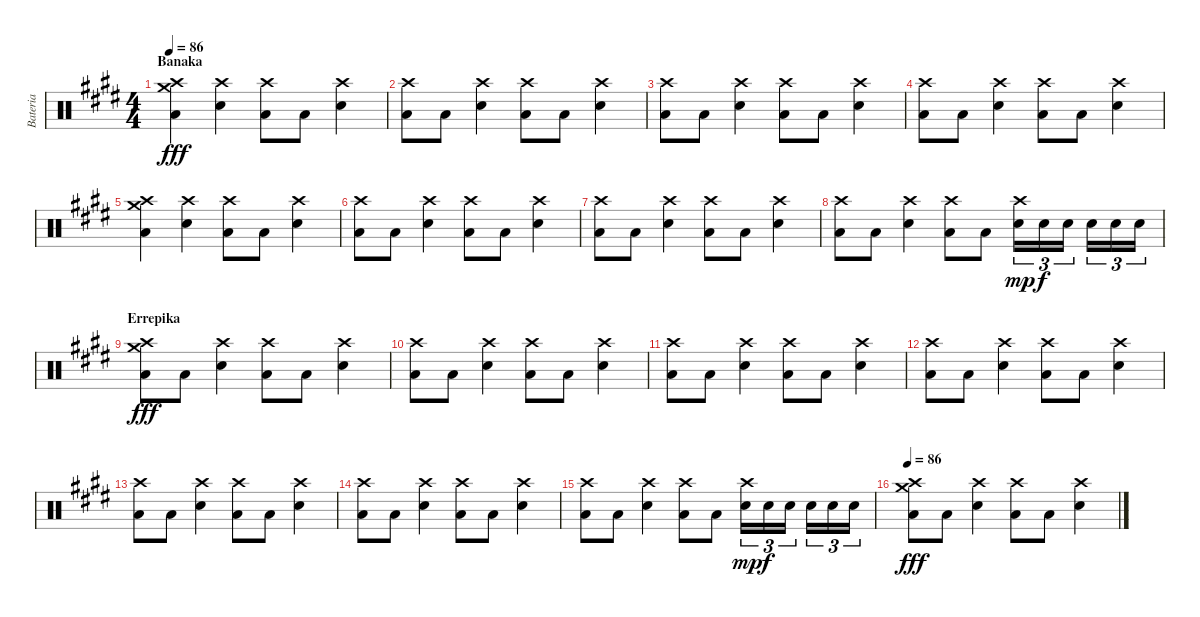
\track ("Bateria" "Bateria") {instrument percussion}
\staff {score}
\articulation defaults
\ts (4 4)
\section ("" "Banaka")
\tempo 86
\clef neutral
\ks e
("Crash high (hit)" "Low Floor Tom (hit)" "Crash medium (hit)").4{dy fff} ("Crash high (hit)" "Electric Snare (hit)").4 ("Crash high (hit)" "Low Floor Tom (hit)").8 "Low Floor Tom (hit)".8 ("Crash high (hit)" "Electric Snare (hit)").4 |
("Crash high (hit)" "Low Floor Tom (hit)").8 "Low Floor Tom (hit)".8 ("Crash high (hit)" "Electric Snare (hit)").4 ("Crash high (hit)" "Low Floor Tom (hit)").8 "Low Floor Tom (hit)".8 ("Crash high (hit)" "Electric Snare (hit)").4 |
("Crash high (hit)" "Low Floor Tom (hit)").8 "Low Floor Tom (hit)".8 ("Crash high (hit)" "Electric Snare (hit)").4 ("Crash high (hit)" "Low Floor Tom (hit)").8 "Low Floor Tom (hit)".8 ("Crash high (hit)" "Electric Snare (hit)").4 |
("Crash high (hit)" "Low Floor Tom (hit)").8 "Low Floor Tom (hit)".8 ("Crash high (hit)" "Electric Snare (hit)").4 ("Crash high (hit)" "Low Floor Tom (hit)").8 "Low Floor Tom (hit)".8 ("Crash high (hit)" "Electric Snare (hit)").4 |
("Crash high (hit)" "Low Floor Tom (hit)" "Crash medium (hit)").4 ("Crash high (hit)" "Electric Snare (hit)").4 ("Crash high (hit)" "Low Floor Tom (hit)").8 "Low Floor Tom (hit)".8 ("Crash high (hit)" "Electric Snare (hit)").4 |
("Crash high (hit)" "Low Floor Tom (hit)").8 "Low Floor Tom (hit)".8 ("Crash high (hit)" "Electric Snare (hit)").4 ("Crash high (hit)" "Low Floor Tom (hit)").8 "Low Floor Tom (hit)".8 ("Crash high (hit)" "Electric Snare (hit)").4 |
("Crash high (hit)" "Low Floor Tom (hit)").8 "Low Floor Tom (hit)".8 ("Crash high (hit)" "Electric Snare (hit)").4 ("Crash high (hit)" "Low Floor Tom (hit)").8 "Low Floor Tom (hit)".8 ("Crash high (hit)" "Electric Snare (hit)").4 |
("Crash high (hit)" "Low Floor Tom (hit)").8 "Low Floor Tom (hit)".8 ("Crash high (hit)" "Electric Snare (hit)").4 ("Crash high (hit)" "Low Floor Tom (hit)").8 "Low Floor Tom (hit)".8 ("Crash high (hit)" "Electric Snare (hit)").16{tu (3 2) dy mp} "Electric Snare (hit)".16{tu (3 2) dy f} "Electric Snare (hit)".16{tu (3 2)} "Electric Snare (hit)".16{tu (3 2)} "Electric Snare (hit)".16{tu (3 2)} "Electric Snare (hit)".16{tu (3 2)} |
\section ("" "Errepika")
("Crash high (hit)" "Low Floor Tom (hit)" "Crash medium (hit)").8{dy fff} "Low Floor Tom (hit)".8 ("Crash high (hit)" "Electric Snare (hit)").4 ("Crash high (hit)" "Low Floor Tom (hit)").8 "Low Floor Tom (hit)".8 ("Crash high (hit)" "Electric Snare (hit)").4 |
("Crash high (hit)" "Low Floor Tom (hit)").8 "Low Floor Tom (hit)".8 ("Crash high (hit)" "Electric Snare (hit)").4 ("Crash high (hit)" "Low Floor Tom (hit)").8 "Low Floor Tom (hit)".8 ("Crash high (hit)" "Electric Snare (hit)").4 |
("Crash high (hit)" "Low Floor Tom (hit)").8 "Low Floor Tom (hit)".8 ("Crash high (hit)" "Electric Snare (hit)").4 ("Crash high (hit)" "Low Floor Tom (hit)").8 "Low Floor Tom (hit)".8 ("Crash high (hit)" "Electric Snare (hit)").4 |
("Crash high (hit)" "Low Floor Tom (hit)").8 "Low Floor Tom (hit)".8 ("Crash high (hit)" "Electric Snare (hit)").4 ("Crash high (hit)" "Low Floor Tom (hit)").8 "Low Floor Tom (hit)".8 ("Crash high (hit)" "Electric Snare (hit)").4 |
("Crash high (hit)" "Low Floor Tom (hit)").8 "Low Floor Tom (hit)".8 ("Crash high (hit)" "Electric Snare (hit)").4 ("Crash high (hit)" "Low Floor Tom (hit)").8 "Low Floor Tom (hit)".8 ("Crash high (hit)" "Electric Snare (hit)").4 |
("Crash high (hit)" "Low Floor Tom (hit)").8 "Low Floor Tom (hit)".8 ("Crash high (hit)" "Electric Snare (hit)").4 ("Crash high (hit)" "Low Floor Tom (hit)").8 "Low Floor Tom (hit)".8 ("Crash high (hit)" "Electric Snare (hit)").4 |
("Crash high (hit)" "Low Floor Tom (hit)").8 "Low Floor Tom (hit)".8 ("Crash high (hit)" "Electric Snare (hit)").4 ("Crash high (hit)" "Low Floor Tom (hit)").8 "Low Floor Tom (hit)".8 ("Crash high (hit)" "Electric Snare (hit)").16{tu (3 2) dy mp} "Electric Snare (hit)".16{tu (3 2) dy f} "Electric Snare (hit)".16{tu (3 2)} "Electric Snare (hit)".16{tu (3 2)} "Electric Snare (hit)".16{tu (3 2)} "Electric Snare (hit)".16{tu (3 2)} |
\tempo 86
("Crash high (hit)" "Low Floor Tom (hit)" "Crash medium (hit)").8{dy fff} "Low Floor Tom (hit)".8 ("Crash high (hit)" "Electric Snare (hit)").4 ("Crash high (hit)" "Low Floor Tom (hit)").8 "Low Floor Tom (hit)".8 ("Crash high (hit)" "Electric Snare (hit)").4
